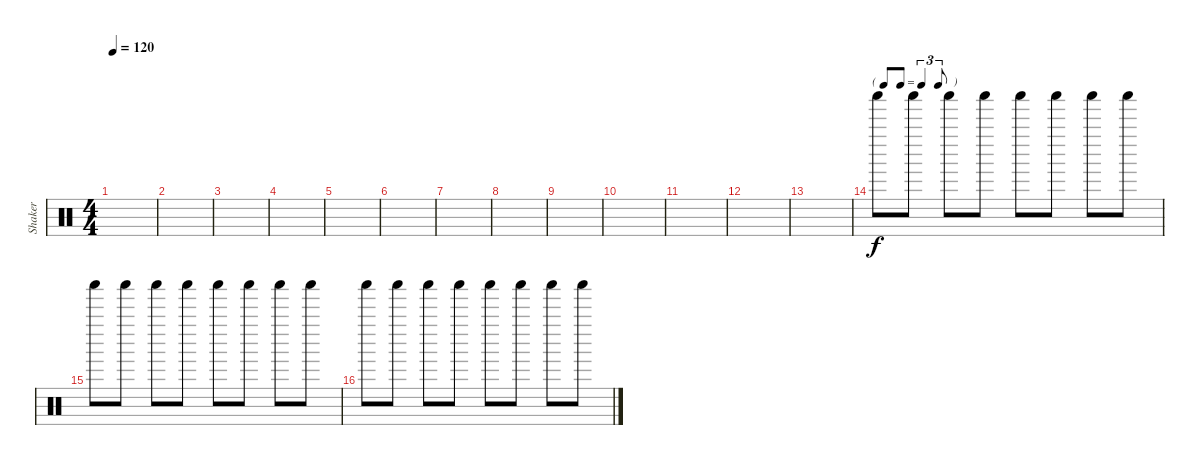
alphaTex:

\track ("Shaker" "Shaker") {instrument percussion}
\staff {score}
\articulation defaults
\ts (4 4)
\tempo 120
\clef neutral
\ks c
|
|
|
|
|
|
|
|
|
|
|
|
|
\tf triplet8th "Shaker (hit)".8 "Shaker (hit)".8 "Shaker (hit)".8 "Shaker (hit)".8 "Shaker (hit)".8 "Shaker (hit)".8 "Shaker (hit)".8 "Shaker (hit)".8
|
"Shaker (hit)".8 "Shaker (hit)".8 "Shaker (hit)".8 "Shaker (hit)".8 "Shaker (hit)".8 "Shaker (hit)".8 "Shaker (hit)".8 "Shaker (hit)".8 |
"Shaker (hit)".8 "Shaker (hit)".8 "Shaker (hit)".8 "Shaker (hit)".8 "Shaker (hit)".8 "Shaker (hit)".8 "Shaker (hit)".8 "Shaker (hit)".8
